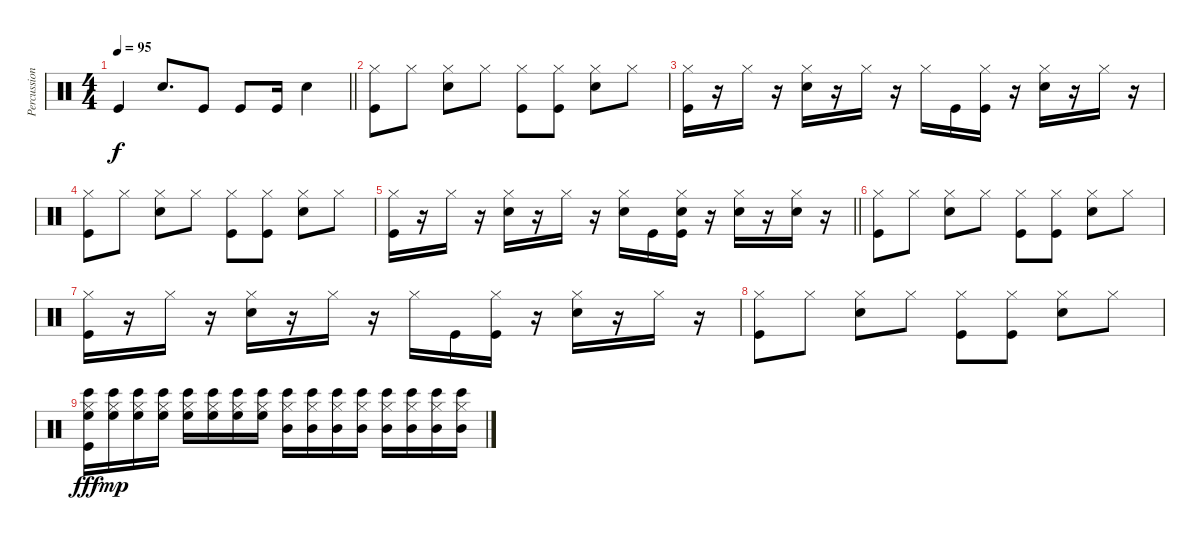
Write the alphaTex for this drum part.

\track ("Percussion" "Percussion") {instrument percussion}
\staff {score}
\articulation defaults
\ts (4 4)
\tempo 95
\clef neutral
\barLineRight lightlight
\ks c "Kick (hit)".4{dy f} "Hand Clap (hit)".8{d} "Kick (hit)".8 "Kick (hit)".8 "Kick (hit)".16 "Hand Clap (hit)".4
|
("Hi-Hat (closed)" "Kick (hit)").8 "Hi-Hat (closed)".8 ("Hi-Hat (closed)" "Hand Clap (hit)").8 "Hi-Hat (closed)".8 ("Hi-Hat (closed)" "Kick (hit)").8 ("Hi-Hat (closed)" "Kick (hit)").8 ("Hi-Hat (closed)" "Hand Clap (hit)").8 "Hi-Hat (closed)".8 |
("Hi-Hat (closed)" "Kick (hit)").16 r.16 "Hi-Hat (closed)".16 r.16 ("Hi-Hat (closed)" "Hand Clap (hit)").16 r.16 "Hi-Hat (closed)".16 r.16 "Hi-Hat (closed)".16 "Kick (hit)".16 ("Hi-Hat (closed)" "Kick (hit)").16 r.16 ("Hi-Hat (closed)" "Hand Clap (hit)").16 r.16 "Hi-Hat (closed)".16 r.16 |
("Hi-Hat (closed)" "Kick (hit)").8 "Hi-Hat (closed)".8 ("Hi-Hat (closed)" "Hand Clap (hit)").8 "Hi-Hat (closed)".8 ("Hi-Hat (closed)" "Kick (hit)").8 ("Hi-Hat (closed)" "Kick (hit)").8 ("Hi-Hat (closed)" "Hand Clap (hit)").8 "Hi-Hat (closed)".8 |
\barLineRight lightlight
("Hi-Hat (closed)" "Kick (hit)").16 r.16 "Hi-Hat (closed)".16 r.16 ("Hi-Hat (closed)" "Hand Clap (hit)").16 r.16 "Hi-Hat (closed)".16 r.16 ("Hi-Hat (closed)" "Snare (hit) 2").16 "Kick (hit)".16 ("Hi-Hat (closed)" "Snare (hit) 2" "Kick (hit)").16 r.16 ("Hi-Hat (closed)" "Hand Clap (hit)").16 r.16 ("Hi-Hat (closed)" "Snare (hit) 2").16 r.16 |
("Hi-Hat (closed)" "Kick (hit)").8 "Hi-Hat (closed)".8 ("Hi-Hat (closed)" "Hand Clap (hit)").8 "Hi-Hat (closed)".8 ("Hi-Hat (closed)" "Kick (hit)").8 ("Hi-Hat (closed)" "Kick (hit)").8 ("Hi-Hat (closed)" "Hand Clap (hit)").8 "Hi-Hat (closed)".8 |
("Hi-Hat (closed)" "Kick (hit)").16 r.16 "Hi-Hat (closed)".16 r.16 ("Hi-Hat (closed)" "Hand Clap (hit)").16 r.16 "Hi-Hat (closed)".16 r.16 "Hi-Hat (closed)".16 "Kick (hit)".16 ("Hi-Hat (closed)" "Kick (hit)").16 r.16 ("Hi-Hat (closed)" "Hand Clap (hit)").16 r.16 "Hi-Hat (closed)".16 r.16 |
("Hi-Hat (closed)" "Kick (hit)").8 "Hi-Hat (closed)".8 ("Hi-Hat (closed)" "Hand Clap (hit)").8 "Hi-Hat (closed)".8 ("Hi-Hat (closed)" "Kick (hit)").8 ("Hi-Hat (closed)" "Kick (hit)").8 ("Hi-Hat (closed)" "Hand Clap (hit)").8 "Hi-Hat (closed)".8 |
("High Floor Tom (hit)" "Hi-Hat (closed)" "Bongo High (hit)" "Kick (hit)").16{dy fff} ("High Floor Tom (hit)" "Hi-Hat (closed)" "Bongo High (hit)").16{dy mp} ("High Floor Tom (hit)" "Hi-Hat (closed)" "Bongo High (hit)").16 ("High Floor Tom (hit)" "Hi-Hat (closed)" "Bongo High (hit)").16 ("High Floor Tom (hit)" "Hi-Hat (closed)" "Bongo High (hit)").16 ("High Floor Tom (hit)" "Hi-Hat (closed)" "Bongo High (hit)").16 ("High Floor Tom (hit)" "Hi-Hat (closed)" "Bongo High (hit)").16 ("High Floor Tom (hit)" "Hi-Hat (closed)" "Bongo High (hit)").16 ("Mid Tom (hit)" "Hi-Hat (closed)" "Bongo High (hit)").16 ("Mid Tom (hit)" "Hi-Hat (closed)" "Bongo High (hit)").16 ("Mid Tom (hit)" "Hi-Hat (closed)" "Bongo High (hit)").16 ("Mid Tom (hit)" "Hi-Hat (closed)" "Bongo High (hit)").16 ("Mid Tom (hit)" "Hi-Hat (closed)" "Bongo High (hit)").16 ("Mid Tom (hit)" "Hi-Hat (closed)" "Bongo High (hit)").16 ("Mid Tom (hit)" "Hi-Hat (closed)" "Bongo High (hit)").16 ("Mid Tom (hit)" "Hi-Hat (closed)" "Bongo High (hit)").16
